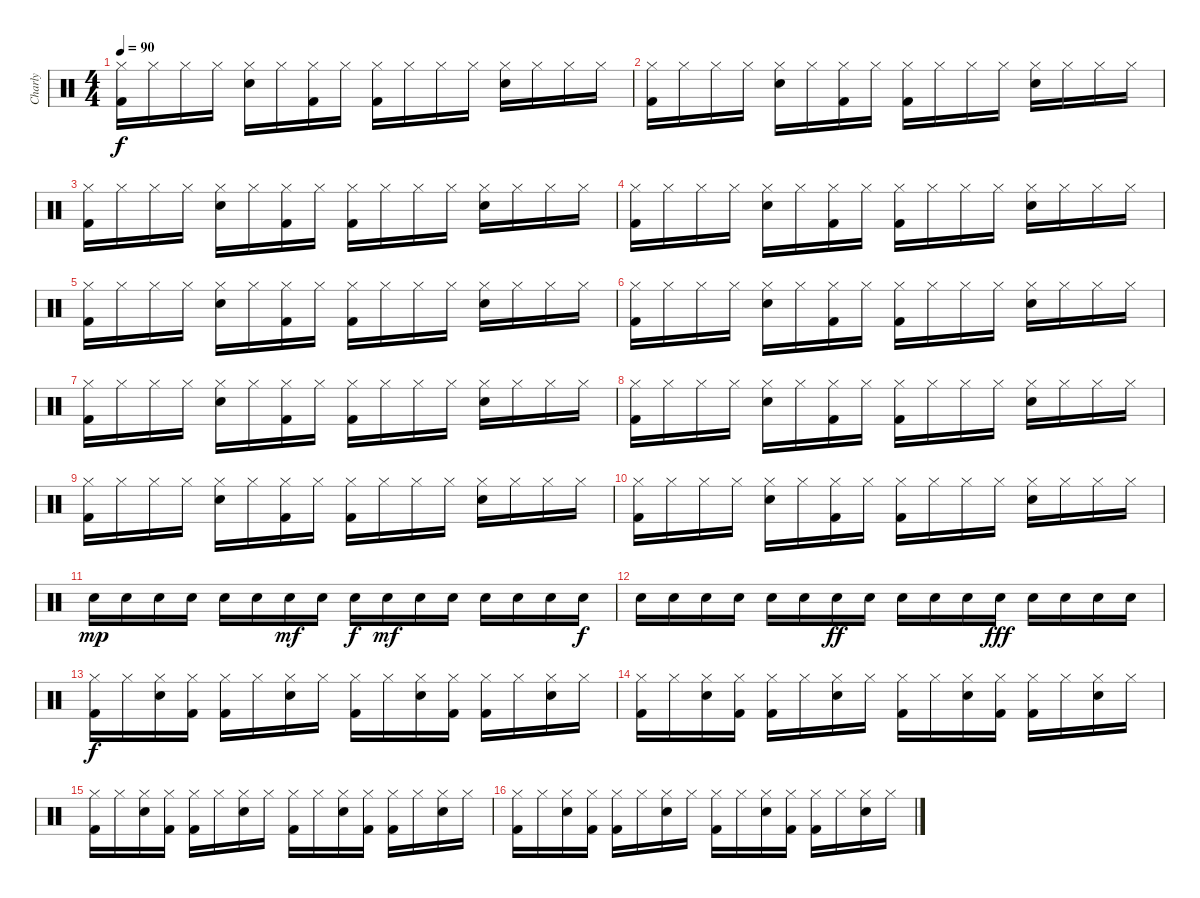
\track ("Charly" "Charly") {instrument percussion}
\staff {score}
\articulation defaults
\ts (4 4)
\tempo 90
\clef neutral
\ks c
("Hi-Hat (closed)" "Kick (hit) 2").16{dy f} "Hi-Hat (closed)".16 "Hi-Hat (closed)".16 "Hi-Hat (closed)".16 ("Hi-Hat (closed)" "Electric Snare (hit)").16 "Hi-Hat (closed)".16 ("Hi-Hat (closed)" "Kick (hit) 2").16 "Hi-Hat (closed)".16 ("Hi-Hat (closed)" "Kick (hit) 2").16 "Hi-Hat (closed)".16 "Hi-Hat (closed)".16 "Hi-Hat (closed)".16 ("Hi-Hat (closed)" "Electric Snare (hit)").16 "Hi-Hat (closed)".16 "Hi-Hat (closed)".16 "Hi-Hat (closed)".16 |
("Hi-Hat (closed)" "Kick (hit) 2").16 "Hi-Hat (closed)".16 "Hi-Hat (closed)".16 "Hi-Hat (closed)".16 ("Hi-Hat (closed)" "Electric Snare (hit)").16 "Hi-Hat (closed)".16 ("Hi-Hat (closed)" "Kick (hit) 2").16 "Hi-Hat (closed)".16 ("Hi-Hat (closed)" "Kick (hit) 2").16 "Hi-Hat (closed)".16 "Hi-Hat (closed)".16 "Hi-Hat (closed)".16 ("Hi-Hat (closed)" "Electric Snare (hit)").16 "Hi-Hat (closed)".16 "Hi-Hat (closed)".16 "Hi-Hat (closed)".16 |
("Hi-Hat (closed)" "Kick (hit) 2").16 "Hi-Hat (closed)".16 "Hi-Hat (closed)".16 "Hi-Hat (closed)".16 ("Hi-Hat (closed)" "Electric Snare (hit)").16 "Hi-Hat (closed)".16 ("Hi-Hat (closed)" "Kick (hit) 2").16 "Hi-Hat (closed)".16 ("Hi-Hat (closed)" "Kick (hit) 2").16 "Hi-Hat (closed)".16 "Hi-Hat (closed)".16 "Hi-Hat (closed)".16 ("Hi-Hat (closed)" "Electric Snare (hit)").16 "Hi-Hat (closed)".16 "Hi-Hat (closed)".16 "Hi-Hat (closed)".16 |
("Hi-Hat (closed)" "Kick (hit) 2").16 "Hi-Hat (closed)".16 "Hi-Hat (closed)".16 "Hi-Hat (closed)".16 ("Hi-Hat (closed)" "Electric Snare (hit)").16 "Hi-Hat (closed)".16 ("Hi-Hat (closed)" "Kick (hit) 2").16 "Hi-Hat (closed)".16 ("Hi-Hat (closed)" "Kick (hit) 2").16 "Hi-Hat (closed)".16 "Hi-Hat (closed)".16 "Hi-Hat (closed)".16 ("Hi-Hat (closed)" "Electric Snare (hit)").16 "Hi-Hat (closed)".16 "Hi-Hat (closed)".16 "Hi-Hat (closed)".16 |
("Hi-Hat (closed)" "Kick (hit) 2").16 "Hi-Hat (closed)".16 "Hi-Hat (closed)".16 "Hi-Hat (closed)".16 ("Hi-Hat (closed)" "Electric Snare (hit)").16 "Hi-Hat (closed)".16 ("Hi-Hat (closed)" "Kick (hit) 2").16 "Hi-Hat (closed)".16 ("Hi-Hat (closed)" "Kick (hit) 2").16 "Hi-Hat (closed)".16 "Hi-Hat (closed)".16 "Hi-Hat (closed)".16 ("Hi-Hat (closed)" "Electric Snare (hit)").16 "Hi-Hat (closed)".16 "Hi-Hat (closed)".16 "Hi-Hat (closed)".16 |
("Hi-Hat (closed)" "Kick (hit) 2").16 "Hi-Hat (closed)".16 "Hi-Hat (closed)".16 "Hi-Hat (closed)".16 ("Hi-Hat (closed)" "Electric Snare (hit)").16 "Hi-Hat (closed)".16 ("Hi-Hat (closed)" "Kick (hit) 2").16 "Hi-Hat (closed)".16 ("Hi-Hat (closed)" "Kick (hit) 2").16 "Hi-Hat (closed)".16 "Hi-Hat (closed)".16 "Hi-Hat (closed)".16 ("Hi-Hat (closed)" "Electric Snare (hit)").16 "Hi-Hat (closed)".16 "Hi-Hat (closed)".16 "Hi-Hat (closed)".16 |
("Hi-Hat (closed)" "Kick (hit) 2").16 "Hi-Hat (closed)".16 "Hi-Hat (closed)".16 "Hi-Hat (closed)".16 ("Hi-Hat (closed)" "Electric Snare (hit)").16 "Hi-Hat (closed)".16 ("Hi-Hat (closed)" "Kick (hit) 2").16 "Hi-Hat (closed)".16 ("Hi-Hat (closed)" "Kick (hit) 2").16 "Hi-Hat (closed)".16 "Hi-Hat (closed)".16 "Hi-Hat (closed)".16 ("Hi-Hat (closed)" "Electric Snare (hit)").16 "Hi-Hat (closed)".16 "Hi-Hat (closed)".16 "Hi-Hat (closed)".16 |
("Hi-Hat (closed)" "Kick (hit) 2").16 "Hi-Hat (closed)".16 "Hi-Hat (closed)".16 "Hi-Hat (closed)".16 ("Hi-Hat (closed)" "Electric Snare (hit)").16 "Hi-Hat (closed)".16 ("Hi-Hat (closed)" "Kick (hit) 2").16 "Hi-Hat (closed)".16 ("Hi-Hat (closed)" "Kick (hit) 2").16 "Hi-Hat (closed)".16 "Hi-Hat (closed)".16 "Hi-Hat (closed)".16 ("Hi-Hat (closed)" "Electric Snare (hit)").16 "Hi-Hat (closed)".16 "Hi-Hat (closed)".16 "Hi-Hat (closed)".16 |
("Hi-Hat (closed)" "Kick (hit) 2").16 "Hi-Hat (closed)".16 "Hi-Hat (closed)".16 "Hi-Hat (closed)".16 ("Hi-Hat (closed)" "Electric Snare (hit)").16 "Hi-Hat (closed)".16 ("Hi-Hat (closed)" "Kick (hit) 2").16 "Hi-Hat (closed)".16 ("Hi-Hat (closed)" "Kick (hit) 2").16 "Hi-Hat (closed)".16 "Hi-Hat (closed)".16 "Hi-Hat (closed)".16 ("Hi-Hat (closed)" "Electric Snare (hit)").16 "Hi-Hat (closed)".16 "Hi-Hat (closed)".16 "Hi-Hat (closed)".16 |
("Hi-Hat (closed)" "Kick (hit) 2").16 "Hi-Hat (closed)".16 "Hi-Hat (closed)".16 "Hi-Hat (closed)".16 ("Hi-Hat (closed)" "Electric Snare (hit)").16 "Hi-Hat (closed)".16 ("Hi-Hat (closed)" "Kick (hit) 2").16 "Hi-Hat (closed)".16 ("Hi-Hat (closed)" "Kick (hit) 2").16 "Hi-Hat (closed)".16 "Hi-Hat (closed)".16 "Hi-Hat (closed)".16 ("Hi-Hat (closed)" "Electric Snare (hit)").16 "Hi-Hat (closed)".16 "Hi-Hat (closed)".16 "Hi-Hat (closed)".16 |
"Electric Snare (hit)".16{dy mp} "Electric Snare (hit)".16 "Electric Snare (hit)".16 "Electric Snare (hit)".16 "Electric Snare (hit)".16 "Electric Snare (hit)".16 "Electric Snare (hit)".16{dy mf} "Electric Snare (hit)".16 "Electric Snare (hit)".16{dy f} "Electric Snare (hit)".16{dy mf} "Electric Snare (hit)".16 "Electric Snare (hit)".16 "Electric Snare (hit)".16 "Electric Snare (hit)".16 "Electric Snare (hit)".16 "Electric Snare (hit)".16{dy f} |
"Electric Snare (hit)".16 "Electric Snare (hit)".16 "Electric Snare (hit)".16 "Electric Snare (hit)".16 "Electric Snare (hit)".16 "Electric Snare (hit)".16 "Electric Snare (hit)".16{dy ff} "Electric Snare (hit)".16 "Electric Snare (hit)".16 "Electric Snare (hit)".16 "Electric Snare (hit)".16 "Electric Snare (hit)".16{dy fff} "Electric Snare (hit)".16 "Electric Snare (hit)".16 "Electric Snare (hit)".16 "Electric Snare (hit)".16 |
("Hi-Hat (closed)" "Kick (hit) 2").16{dy f} "Hi-Hat (closed)".16 ("Hi-Hat (closed)" "Electric Snare (hit)").16 ("Hi-Hat (closed)" "Kick (hit) 2").16 ("Hi-Hat (closed)" "Kick (hit) 2").16 "Hi-Hat (closed)".16 ("Hi-Hat (closed)" "Electric Snare (hit)").16 "Hi-Hat (closed)".16 ("Hi-Hat (closed)" "Kick (hit) 2").16 "Hi-Hat (closed)".16 ("Hi-Hat (closed)" "Electric Snare (hit)").16 ("Hi-Hat (closed)" "Kick (hit) 2").16 ("Hi-Hat (closed)" "Kick (hit) 2").16 "Hi-Hat (closed)".16 ("Hi-Hat (closed)" "Electric Snare (hit)").16 "Hi-Hat (closed)".16 |
("Hi-Hat (closed)" "Kick (hit) 2").16 "Hi-Hat (closed)".16 ("Hi-Hat (closed)" "Electric Snare (hit)").16 ("Hi-Hat (closed)" "Kick (hit) 2").16 ("Hi-Hat (closed)" "Kick (hit) 2").16 "Hi-Hat (closed)".16 ("Hi-Hat (closed)" "Electric Snare (hit)").16 "Hi-Hat (closed)".16 ("Hi-Hat (closed)" "Kick (hit) 2").16 "Hi-Hat (closed)".16 ("Hi-Hat (closed)" "Electric Snare (hit)").16 ("Hi-Hat (closed)" "Kick (hit) 2").16 ("Hi-Hat (closed)" "Kick (hit) 2").16 "Hi-Hat (closed)".16 ("Hi-Hat (closed)" "Electric Snare (hit)").16 "Hi-Hat (closed)".16 |
("Hi-Hat (closed)" "Kick (hit) 2").16 "Hi-Hat (closed)".16 ("Hi-Hat (closed)" "Electric Snare (hit)").16 ("Hi-Hat (closed)" "Kick (hit) 2").16 ("Hi-Hat (closed)" "Kick (hit) 2").16 "Hi-Hat (closed)".16 ("Hi-Hat (closed)" "Electric Snare (hit)").16 "Hi-Hat (closed)".16 ("Hi-Hat (closed)" "Kick (hit) 2").16 "Hi-Hat (closed)".16 ("Hi-Hat (closed)" "Electric Snare (hit)").16 ("Hi-Hat (closed)" "Kick (hit) 2").16 ("Hi-Hat (closed)" "Kick (hit) 2").16 "Hi-Hat (closed)".16 ("Hi-Hat (closed)" "Electric Snare (hit)").16 "Hi-Hat (closed)".16 |
("Hi-Hat (closed)" "Kick (hit) 2").16 "Hi-Hat (closed)".16 ("Hi-Hat (closed)" "Electric Snare (hit)").16 ("Hi-Hat (closed)" "Kick (hit) 2").16 ("Hi-Hat (closed)" "Kick (hit) 2").16 "Hi-Hat (closed)".16 ("Hi-Hat (closed)" "Electric Snare (hit)").16 "Hi-Hat (closed)".16 ("Hi-Hat (closed)" "Kick (hit) 2").16 "Hi-Hat (closed)".16 ("Hi-Hat (closed)" "Electric Snare (hit)").16 ("Hi-Hat (closed)" "Kick (hit) 2").16 ("Hi-Hat (closed)" "Kick (hit) 2").16 "Hi-Hat (closed)".16 ("Hi-Hat (closed)" "Electric Snare (hit)").16 "Hi-Hat (closed)".16
